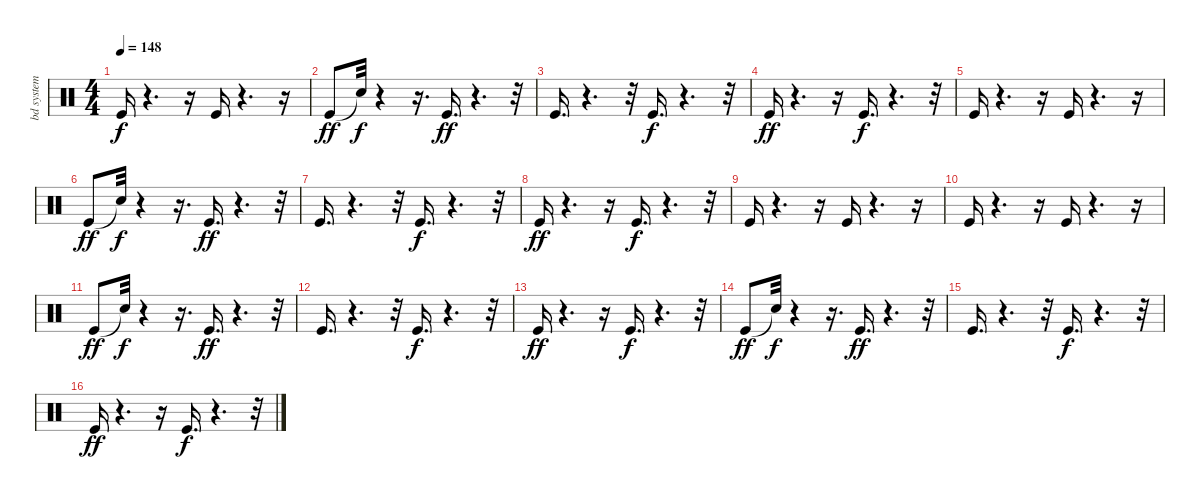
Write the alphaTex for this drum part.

\track ("bd system kits      " "bd system ") {instrument percussion}
\staff {score}
\articulation defaults
\ts (4 4)
\tempo 148
\clef neutral
\ks c "Kick (hit)".16{dy f}
r.4{d} r.16 "Kick (hit)".16 r.4{d} r.16 |
"Kick (hit)".8{dy ff} "Snare (hit)"{t}.32{dy f} r.4 r.16{d} "Kick (hit)".16{d dy ff} r.4{d} r.32 |
"Kick (hit)".16{d} r.4{d} r.32 "Kick (hit)".16{d dy f} r.4{d} r.32 |
"Kick (hit)".16{dy ff} r.4{d} r.16 "Kick (hit)".16{d dy f} r.4{d} r.32 |
"Kick (hit)".16 r.4{d} r.16 "Kick (hit)".16 r.4{d} r.16 |
"Kick (hit)".8{dy ff} "Snare (hit)"{t}.32{dy f} r.4 r.16{d} "Kick (hit)".16{d dy ff} r.4{d} r.32 |
"Kick (hit)".16{d} r.4{d} r.32 "Kick (hit)".16{d dy f} r.4{d} r.32 |
"Kick (hit)".16{dy ff} r.4{d} r.16 "Kick (hit)".16{d dy f} r.4{d} r.32 |
"Kick (hit)".16 r.4{d} r.16 "Kick (hit)".16 r.4{d} r.16 |
"Kick (hit)".16 r.4{d} r.16 "Kick (hit)".16 r.4{d} r.16 |
"Kick (hit)".8{dy ff} "Snare (hit)"{t}.32{dy f} r.4 r.16{d} "Kick (hit)".16{d dy ff} r.4{d} r.32 |
"Kick (hit)".16{d} r.4{d} r.32 "Kick (hit)".16{d dy f} r.4{d} r.32 |
"Kick (hit)".16{dy ff} r.4{d} r.16 "Kick (hit)".16{d dy f} r.4{d} r.32 |
"Kick (hit)".8{dy ff} "Snare (hit)"{t}.32{dy f} r.4 r.16{d} "Kick (hit)".16{d dy ff} r.4{d} r.32 |
"Kick (hit)".16{d} r.4{d} r.32 "Kick (hit)".16{d dy f} r.4{d} r.32 |
"Kick (hit)".16{dy ff} r.4{d} r.16 "Kick (hit)".16{d dy f} r.4{d} r.32
